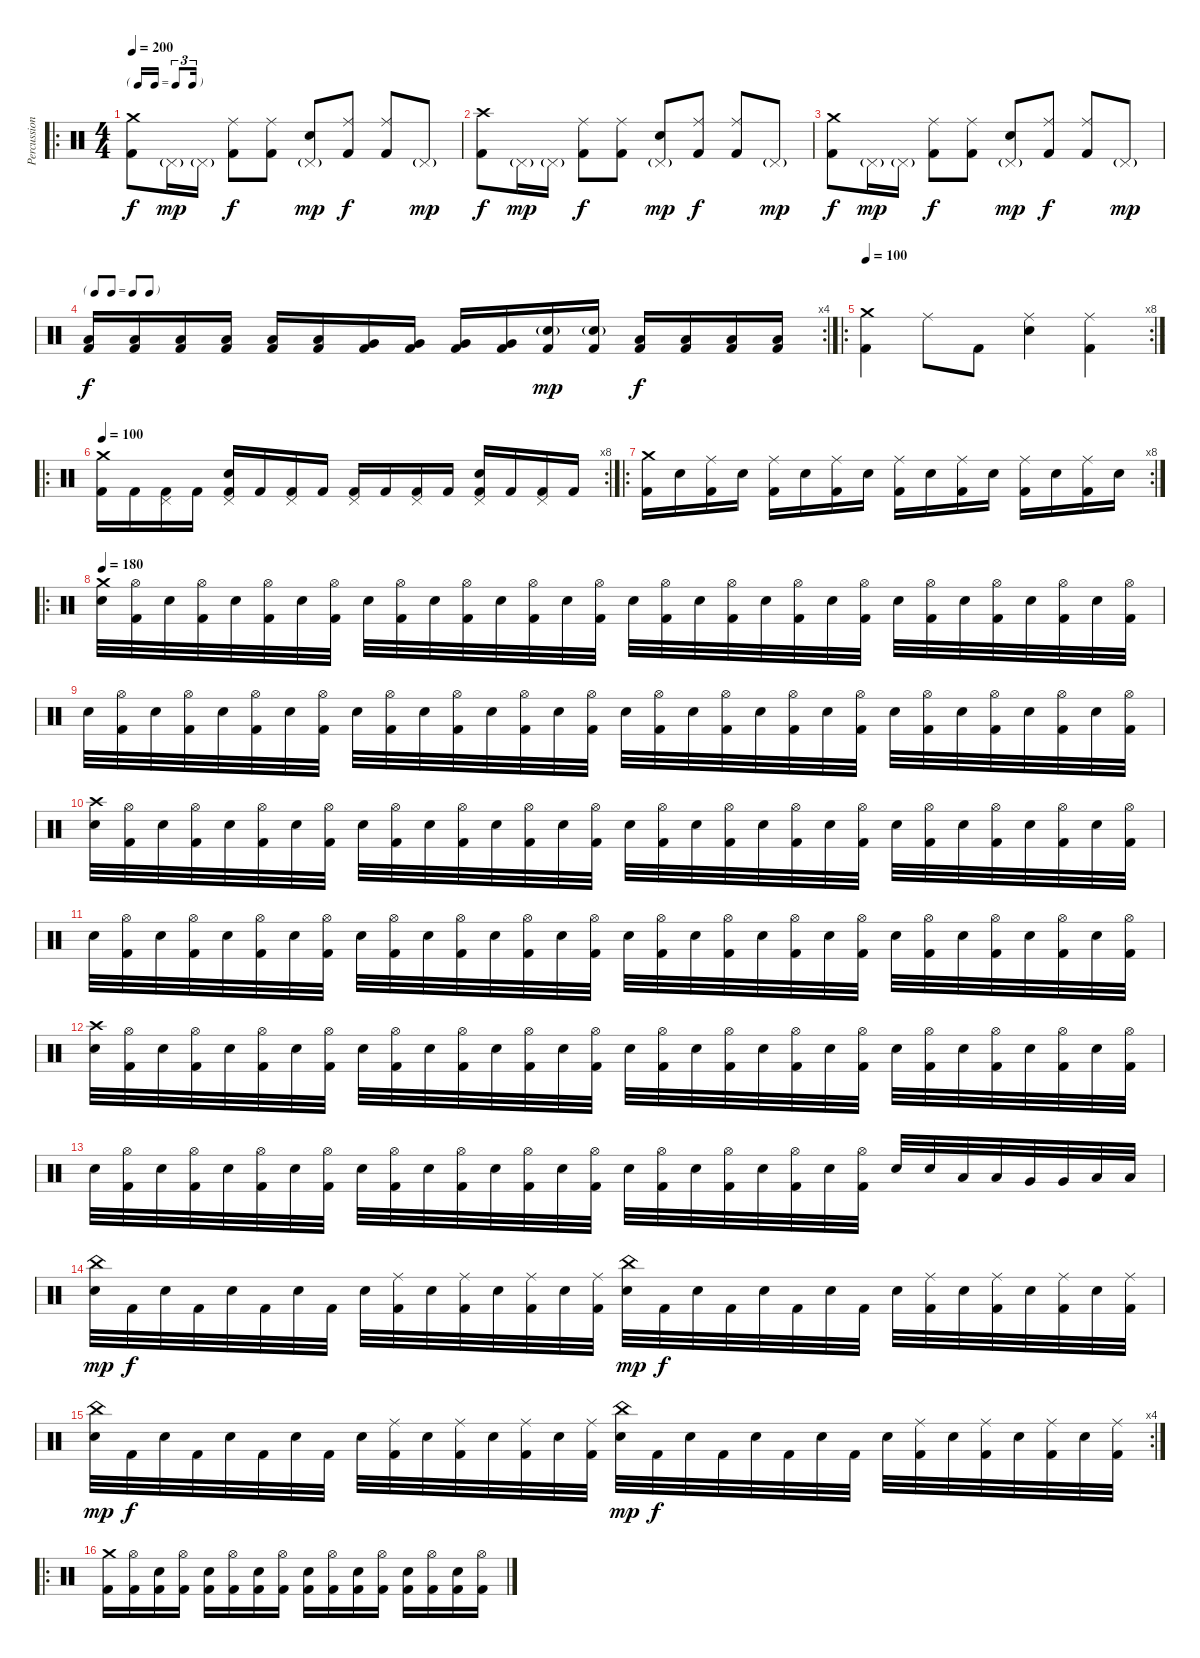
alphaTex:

\track ("Percussion" "Percussion") {instrument percussion}
\staff {score}
\articulation defaults
\ro
\ts (4 4)
\tf triplet16th
\tempo 200
\clef neutral
\ks c
("Crash medium (hit)" "Kick (hit) 2").8{dy f} "Pedal Hi-Hat (hit)"{g}.16{dy mp} "Pedal Hi-Hat (hit)"{g}.16 ("Ride (middle)" "Kick (hit) 2").8{dy f} ("Ride (middle)" "Kick (hit) 2").8 ("Pedal Hi-Hat (hit)"{g} "Electric Snare (hit)").8{dy mp} ("Ride (middle)" "Kick (hit) 2").8{dy f} ("Ride (middle)" "Kick (hit) 2").8 "Pedal Hi-Hat (hit)"{g}.8{dy mp} |
("Crash high (hit)" "Kick (hit) 2").8{dy f} "Pedal Hi-Hat (hit)"{g}.16{dy mp} "Pedal Hi-Hat (hit)"{g}.16 ("Ride (middle)" "Kick (hit) 2").8{dy f} ("Ride (middle)" "Kick (hit) 2").8 ("Pedal Hi-Hat (hit)"{g} "Electric Snare (hit)").8{dy mp} ("Ride (middle)" "Kick (hit) 2").8{dy f} ("Ride (middle)" "Kick (hit) 2").8 "Pedal Hi-Hat (hit)"{g}.8{dy mp} |
("Crash medium (hit)" "Kick (hit) 2").8{dy f} "Pedal Hi-Hat (hit)"{g}.16{dy mp} "Pedal Hi-Hat (hit)"{g}.16 ("Ride (middle)" "Kick (hit) 2").8{dy f} ("Ride (middle)" "Kick (hit) 2").8 ("Pedal Hi-Hat (hit)"{g} "Electric Snare (hit)").8{dy mp} ("Ride (middle)" "Kick (hit) 2").8{dy f} ("Ride (middle)" "Kick (hit) 2").8 "Pedal Hi-Hat (hit)"{g}.8{dy mp} |
\rc 4
\tf none
("Low Tom (hit)" "Kick (hit) 2").16{dy f} ("Low Tom (hit)" "Kick (hit) 2").16 ("Low Tom (hit)" "Kick (hit) 2").16 ("Low Tom (hit)" "Kick (hit) 2").16 ("Low Tom (hit)" "Kick (hit) 2").16 ("Low Tom (hit)" "Kick (hit) 2").16 ("Very Low Tom (hit)" "Kick (hit) 2").16 ("Very Low Tom (hit)" "Kick (hit) 2").16 ("Very Low Tom (hit)" "Kick (hit) 2").16 ("Very Low Tom (hit)" "Kick (hit) 2").16 ("Electric Snare (hit)"{g} "Kick (hit) 2").16{dy mp} ("Electric Snare (hit)"{g} "Kick (hit) 2").16 ("Low Floor Tom (hit)" "Kick (hit) 2").16{dy f} ("Low Floor Tom (hit)" "Kick (hit) 2").16 ("Low Floor Tom (hit)" "Kick (hit) 2").16 ("Low Floor Tom (hit)" "Kick (hit) 2").16 |
\ro
\rc 8
\tempo 100
("Crash medium (hit)" "Kick (hit) 2").4 "Ride (middle)".8 "Kick (hit) 2".8 ("Ride (middle)" "Electric Snare (hit)").4 ("Ride (middle)" "Kick (hit) 2").4 |
\ro
\rc 8
\tempo 100
("Crash medium (hit)" "Kick (hit) 2").16 "Kick (hit) 2".16 ("Pedal Hi-Hat (hit)" "Kick (hit) 2").16 "Kick (hit) 2".16 ("Pedal Hi-Hat (hit)" "Electric Snare (hit)" "Kick (hit) 2").16 "Kick (hit) 2".16 ("Pedal Hi-Hat (hit)" "Kick (hit) 2").16 "Kick (hit) 2".16 ("Pedal Hi-Hat (hit)" "Kick (hit) 2").16 "Kick (hit) 2".16 ("Pedal Hi-Hat (hit)" "Kick (hit) 2").16 "Kick (hit) 2".16 ("Pedal Hi-Hat (hit)" "Electric Snare (hit)" "Kick (hit) 2").16 "Kick (hit) 2".16 ("Pedal Hi-Hat (hit)" "Kick (hit) 2").16 "Kick (hit) 2".16 |
\ro
\rc 8
("Crash medium (hit)" "Kick (hit) 2").16 "Electric Snare (hit)".16 ("Ride (middle)" "Kick (hit) 2").16 "Electric Snare (hit)".16 ("Ride (middle)" "Kick (hit) 2").16 "Electric Snare (hit)".16 ("Ride (middle)" "Kick (hit) 2").16 "Electric Snare (hit)".16 ("Ride (middle)" "Kick (hit) 2").16 "Electric Snare (hit)".16 ("Ride (middle)" "Kick (hit) 2").16 "Electric Snare (hit)".16 ("Ride (middle)" "Kick (hit) 2").16 "Electric Snare (hit)".16 ("Ride (middle)" "Kick (hit) 2").16 "Electric Snare (hit)".16 |
\ro
\tempo 180
("Crash medium (hit)" "Electric Snare (hit)").32 ("Hi-Hat (open)" "Kick (hit) 2").32 "Electric Snare (hit)".32 ("Hi-Hat (open)" "Kick (hit) 2").32 "Electric Snare (hit)".32 ("Hi-Hat (open)" "Kick (hit) 2").32 "Electric Snare (hit)".32 ("Hi-Hat (open)" "Kick (hit) 2").32 "Electric Snare (hit)".32 ("Hi-Hat (open)" "Kick (hit) 2").32 "Electric Snare (hit)".32 ("Hi-Hat (open)" "Kick (hit) 2").32 "Electric Snare (hit)".32 ("Hi-Hat (open)" "Kick (hit) 2").32 "Electric Snare (hit)".32 ("Hi-Hat (open)" "Kick (hit) 2").32 "Electric Snare (hit)".32 ("Hi-Hat (open)" "Kick (hit) 2").32 "Electric Snare (hit)".32 ("Hi-Hat (open)" "Kick (hit) 2").32 "Electric Snare (hit)".32 ("Hi-Hat (open)" "Kick (hit) 2").32 "Electric Snare (hit)".32 ("Hi-Hat (open)" "Kick (hit) 2").32 "Electric Snare (hit)".32 ("Hi-Hat (open)" "Kick (hit) 2").32 "Electric Snare (hit)".32 ("Hi-Hat (open)" "Kick (hit) 2").32 "Electric Snare (hit)".32 ("Hi-Hat (open)" "Kick (hit) 2").32 "Electric Snare (hit)".32 ("Hi-Hat (open)" "Kick (hit) 2").32 |
"Electric Snare (hit)".32 ("Hi-Hat (open)" "Kick (hit) 2").32 "Electric Snare (hit)".32 ("Hi-Hat (open)" "Kick (hit) 2").32 "Electric Snare (hit)".32 ("Hi-Hat (open)" "Kick (hit) 2").32 "Electric Snare (hit)".32 ("Hi-Hat (open)" "Kick (hit) 2").32 "Electric Snare (hit)".32 ("Hi-Hat (open)" "Kick (hit) 2").32 "Electric Snare (hit)".32 ("Hi-Hat (open)" "Kick (hit) 2").32 "Electric Snare (hit)".32 ("Hi-Hat (open)" "Kick (hit) 2").32 "Electric Snare (hit)".32 ("Hi-Hat (open)" "Kick (hit) 2").32 "Electric Snare (hit)".32 ("Hi-Hat (open)" "Kick (hit) 2").32 "Electric Snare (hit)".32 ("Hi-Hat (open)" "Kick (hit) 2").32 "Electric Snare (hit)".32 ("Hi-Hat (open)" "Kick (hit) 2").32 "Electric Snare (hit)".32 ("Hi-Hat (open)" "Kick (hit) 2").32 "Electric Snare (hit)".32 ("Hi-Hat (open)" "Kick (hit) 2").32 "Electric Snare (hit)".32 ("Hi-Hat (open)" "Kick (hit) 2").32 "Electric Snare (hit)".32 ("Hi-Hat (open)" "Kick (hit) 2").32 "Electric Snare (hit)".32 ("Hi-Hat (open)" "Kick (hit) 2").32 |
("Crash high (hit)" "Electric Snare (hit)").32 ("Hi-Hat (open)" "Kick (hit) 2").32 "Electric Snare (hit)".32 ("Hi-Hat (open)" "Kick (hit) 2").32 "Electric Snare (hit)".32 ("Hi-Hat (open)" "Kick (hit) 2").32 "Electric Snare (hit)".32 ("Hi-Hat (open)" "Kick (hit) 2").32 "Electric Snare (hit)".32 ("Hi-Hat (open)" "Kick (hit) 2").32 "Electric Snare (hit)".32 ("Hi-Hat (open)" "Kick (hit) 2").32 "Electric Snare (hit)".32 ("Hi-Hat (open)" "Kick (hit) 2").32 "Electric Snare (hit)".32 ("Hi-Hat (open)" "Kick (hit) 2").32 "Electric Snare (hit)".32 ("Hi-Hat (open)" "Kick (hit) 2").32 "Electric Snare (hit)".32 ("Hi-Hat (open)" "Kick (hit) 2").32 "Electric Snare (hit)".32 ("Hi-Hat (open)" "Kick (hit) 2").32 "Electric Snare (hit)".32 ("Hi-Hat (open)" "Kick (hit) 2").32 "Electric Snare (hit)".32 ("Hi-Hat (open)" "Kick (hit) 2").32 "Electric Snare (hit)".32 ("Hi-Hat (open)" "Kick (hit) 2").32 "Electric Snare (hit)".32 ("Hi-Hat (open)" "Kick (hit) 2").32 "Electric Snare (hit)".32 ("Hi-Hat (open)" "Kick (hit) 2").32 |
"Electric Snare (hit)".32 ("Hi-Hat (open)" "Kick (hit) 2").32 "Electric Snare (hit)".32 ("Hi-Hat (open)" "Kick (hit) 2").32 "Electric Snare (hit)".32 ("Hi-Hat (open)" "Kick (hit) 2").32 "Electric Snare (hit)".32 ("Hi-Hat (open)" "Kick (hit) 2").32 "Electric Snare (hit)".32 ("Hi-Hat (open)" "Kick (hit) 2").32 "Electric Snare (hit)".32 ("Hi-Hat (open)" "Kick (hit) 2").32 "Electric Snare (hit)".32 ("Hi-Hat (open)" "Kick (hit) 2").32 "Electric Snare (hit)".32 ("Hi-Hat (open)" "Kick (hit) 2").32 "Electric Snare (hit)".32 ("Hi-Hat (open)" "Kick (hit) 2").32 "Electric Snare (hit)".32 ("Hi-Hat (open)" "Kick (hit) 2").32 "Electric Snare (hit)".32 ("Hi-Hat (open)" "Kick (hit) 2").32 "Electric Snare (hit)".32 ("Hi-Hat (open)" "Kick (hit) 2").32 "Electric Snare (hit)".32 ("Hi-Hat (open)" "Kick (hit) 2").32 "Electric Snare (hit)".32 ("Hi-Hat (open)" "Kick (hit) 2").32 "Electric Snare (hit)".32 ("Hi-Hat (open)" "Kick (hit) 2").32 "Electric Snare (hit)".32 ("Hi-Hat (open)" "Kick (hit) 2").32 |
("Crash high (hit)" "Electric Snare (hit)").32 ("Hi-Hat (open)" "Kick (hit) 2").32 "Electric Snare (hit)".32 ("Hi-Hat (open)" "Kick (hit) 2").32 "Electric Snare (hit)".32 ("Hi-Hat (open)" "Kick (hit) 2").32 "Electric Snare (hit)".32 ("Hi-Hat (open)" "Kick (hit) 2").32 "Electric Snare (hit)".32 ("Hi-Hat (open)" "Kick (hit) 2").32 "Electric Snare (hit)".32 ("Hi-Hat (open)" "Kick (hit) 2").32 "Electric Snare (hit)".32 ("Hi-Hat (open)" "Kick (hit) 2").32 "Electric Snare (hit)".32 ("Hi-Hat (open)" "Kick (hit) 2").32 "Electric Snare (hit)".32 ("Hi-Hat (open)" "Kick (hit) 2").32 "Electric Snare (hit)".32 ("Hi-Hat (open)" "Kick (hit) 2").32 "Electric Snare (hit)".32 ("Hi-Hat (open)" "Kick (hit) 2").32 "Electric Snare (hit)".32 ("Hi-Hat (open)" "Kick (hit) 2").32 "Electric Snare (hit)".32 ("Hi-Hat (open)" "Kick (hit) 2").32 "Electric Snare (hit)".32 ("Hi-Hat (open)" "Kick (hit) 2").32 "Electric Snare (hit)".32 ("Hi-Hat (open)" "Kick (hit) 2").32 "Electric Snare (hit)".32 ("Hi-Hat (open)" "Kick (hit) 2").32 |
"Electric Snare (hit)".32 ("Hi-Hat (open)" "Kick (hit) 2").32 "Electric Snare (hit)".32 ("Hi-Hat (open)" "Kick (hit) 2").32 "Electric Snare (hit)".32 ("Hi-Hat (open)" "Kick (hit) 2").32 "Electric Snare (hit)".32 ("Hi-Hat (open)" "Kick (hit) 2").32 "Electric Snare (hit)".32 ("Hi-Hat (open)" "Kick (hit) 2").32 "Electric Snare (hit)".32 ("Hi-Hat (open)" "Kick (hit) 2").32 "Electric Snare (hit)".32 ("Hi-Hat (open)" "Kick (hit) 2").32 "Electric Snare (hit)".32 ("Hi-Hat (open)" "Kick (hit) 2").32 "Electric Snare (hit)".32 ("Hi-Hat (open)" "Kick (hit) 2").32 "Electric Snare (hit)".32 ("Hi-Hat (open)" "Kick (hit) 2").32 "Electric Snare (hit)".32 ("Hi-Hat (open)" "Kick (hit) 2").32 "Electric Snare (hit)".32 ("Hi-Hat (open)" "Kick (hit) 2").32 "Electric Snare (hit)".32 "Electric Snare (hit)".32 "Low Tom (hit)".32 "Low Tom (hit)".32 "Very Low Tom (hit)".32 "Very Low Tom (hit)".32 "Low Floor Tom (hit)".32 "Low Floor Tom (hit)".32 |
("China (hit)" "Electric Snare (hit)").32{dy mp} "Kick (hit) 2".32{dy f} "Electric Snare (hit)".32 "Kick (hit) 2".32 "Electric Snare (hit)".32 "Kick (hit) 2".32 "Electric Snare (hit)".32 "Kick (hit) 2".32 "Electric Snare (hit)".32 ("Ride (middle)" "Kick (hit) 2").32 "Electric Snare (hit)".32 ("Ride (middle)" "Kick (hit) 2").32 "Electric Snare (hit)".32 ("Ride (middle)" "Kick (hit) 2").32 "Electric Snare (hit)".32 ("Ride (middle)" "Kick (hit) 2").32 ("China (hit)" "Electric Snare (hit)").32{dy mp} "Kick (hit) 2".32{dy f} "Electric Snare (hit)".32 "Kick (hit) 2".32 "Electric Snare (hit)".32 "Kick (hit) 2".32 "Electric Snare (hit)".32 "Kick (hit) 2".32 "Electric Snare (hit)".32 ("Ride (middle)" "Kick (hit) 2").32 "Electric Snare (hit)".32 ("Ride (middle)" "Kick (hit) 2").32 "Electric Snare (hit)".32 ("Ride (middle)" "Kick (hit) 2").32 "Electric Snare (hit)".32 ("Ride (middle)" "Kick (hit) 2").32 |
\rc 4
("China (hit)" "Electric Snare (hit)").32{dy mp} "Kick (hit) 2".32{dy f} "Electric Snare (hit)".32 "Kick (hit) 2".32 "Electric Snare (hit)".32 "Kick (hit) 2".32 "Electric Snare (hit)".32 "Kick (hit) 2".32 "Electric Snare (hit)".32 ("Ride (middle)" "Kick (hit) 2").32 "Electric Snare (hit)".32 ("Ride (middle)" "Kick (hit) 2").32 "Electric Snare (hit)".32 ("Ride (middle)" "Kick (hit) 2").32 "Electric Snare (hit)".32 ("Ride (middle)" "Kick (hit) 2").32 ("China (hit)" "Electric Snare (hit)").32{dy mp} "Kick (hit) 2".32{dy f} "Electric Snare (hit)".32 "Kick (hit) 2".32 "Electric Snare (hit)".32 "Kick (hit) 2".32 "Electric Snare (hit)".32 "Kick (hit) 2".32 "Electric Snare (hit)".32 ("Ride (middle)" "Kick (hit) 2").32 "Electric Snare (hit)".32 ("Ride (middle)" "Kick (hit) 2").32 "Electric Snare (hit)".32 ("Ride (middle)" "Kick (hit) 2").32 "Electric Snare (hit)".32 ("Ride (middle)" "Kick (hit) 2").32 |
\ro
("Crash medium (hit)" "Kick (hit) 2").16 ("Hi-Hat (open)" "Kick (hit) 2").16 ("Electric Snare (hit)" "Kick (hit) 2").16 ("Hi-Hat (open)" "Kick (hit) 2").16 ("Electric Snare (hit)" "Kick (hit) 2").16 ("Hi-Hat (open)" "Kick (hit) 2").16 ("Electric Snare (hit)" "Kick (hit) 2").16 ("Hi-Hat (open)" "Kick (hit) 2").16 ("Electric Snare (hit)" "Kick (hit) 2").16 ("Hi-Hat (open)" "Kick (hit) 2").16 ("Electric Snare (hit)" "Kick (hit) 2").16 ("Hi-Hat (open)" "Kick (hit) 2").16 ("Electric Snare (hit)" "Kick (hit) 2").16 ("Hi-Hat (open)" "Kick (hit) 2").16 ("Electric Snare (hit)" "Kick (hit) 2").16 ("Hi-Hat (open)" "Kick (hit) 2").16
